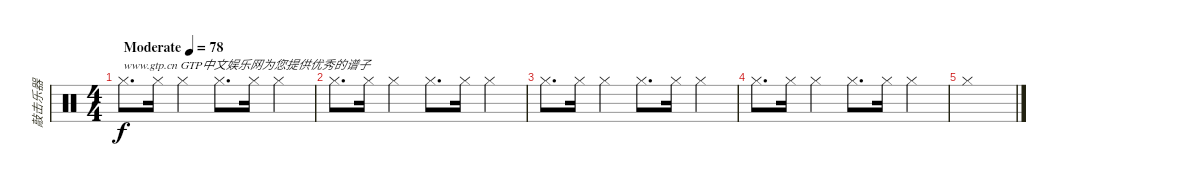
\track ("敲击乐器" "敲击乐器") {instrument percussion}
\staff {score}
\articulation defaults
\ts (4 4)
\tempo (78 "Moderate")
\clef neutral
\ks c "Hi-Hat (closed)".8{d txt "www.gtp.cn GTP中文娱乐网为您提供优秀的谱子" dy f} "Hi-Hat (closed)".16 "Hi-Hat (closed)".4 "Hi-Hat (closed)".8{d} "Hi-Hat (closed)".16 "Hi-Hat (closed)".4
|
"Hi-Hat (closed)".8{d} "Hi-Hat (closed)".16 "Hi-Hat (closed)".4 "Hi-Hat (closed)".8{d} "Hi-Hat (closed)".16 "Hi-Hat (closed)".4 |
"Hi-Hat (closed)".8{d} "Hi-Hat (closed)".16 "Hi-Hat (closed)".4 "Hi-Hat (closed)".8{d} "Hi-Hat (closed)".16 "Hi-Hat (closed)".4 |
"Hi-Hat (closed)".8{d} "Hi-Hat (closed)".16 "Hi-Hat (closed)".4 "Hi-Hat (closed)".8{d} "Hi-Hat (closed)".16 "Hi-Hat (closed)".4 |
"Hi-Hat (closed)".1
